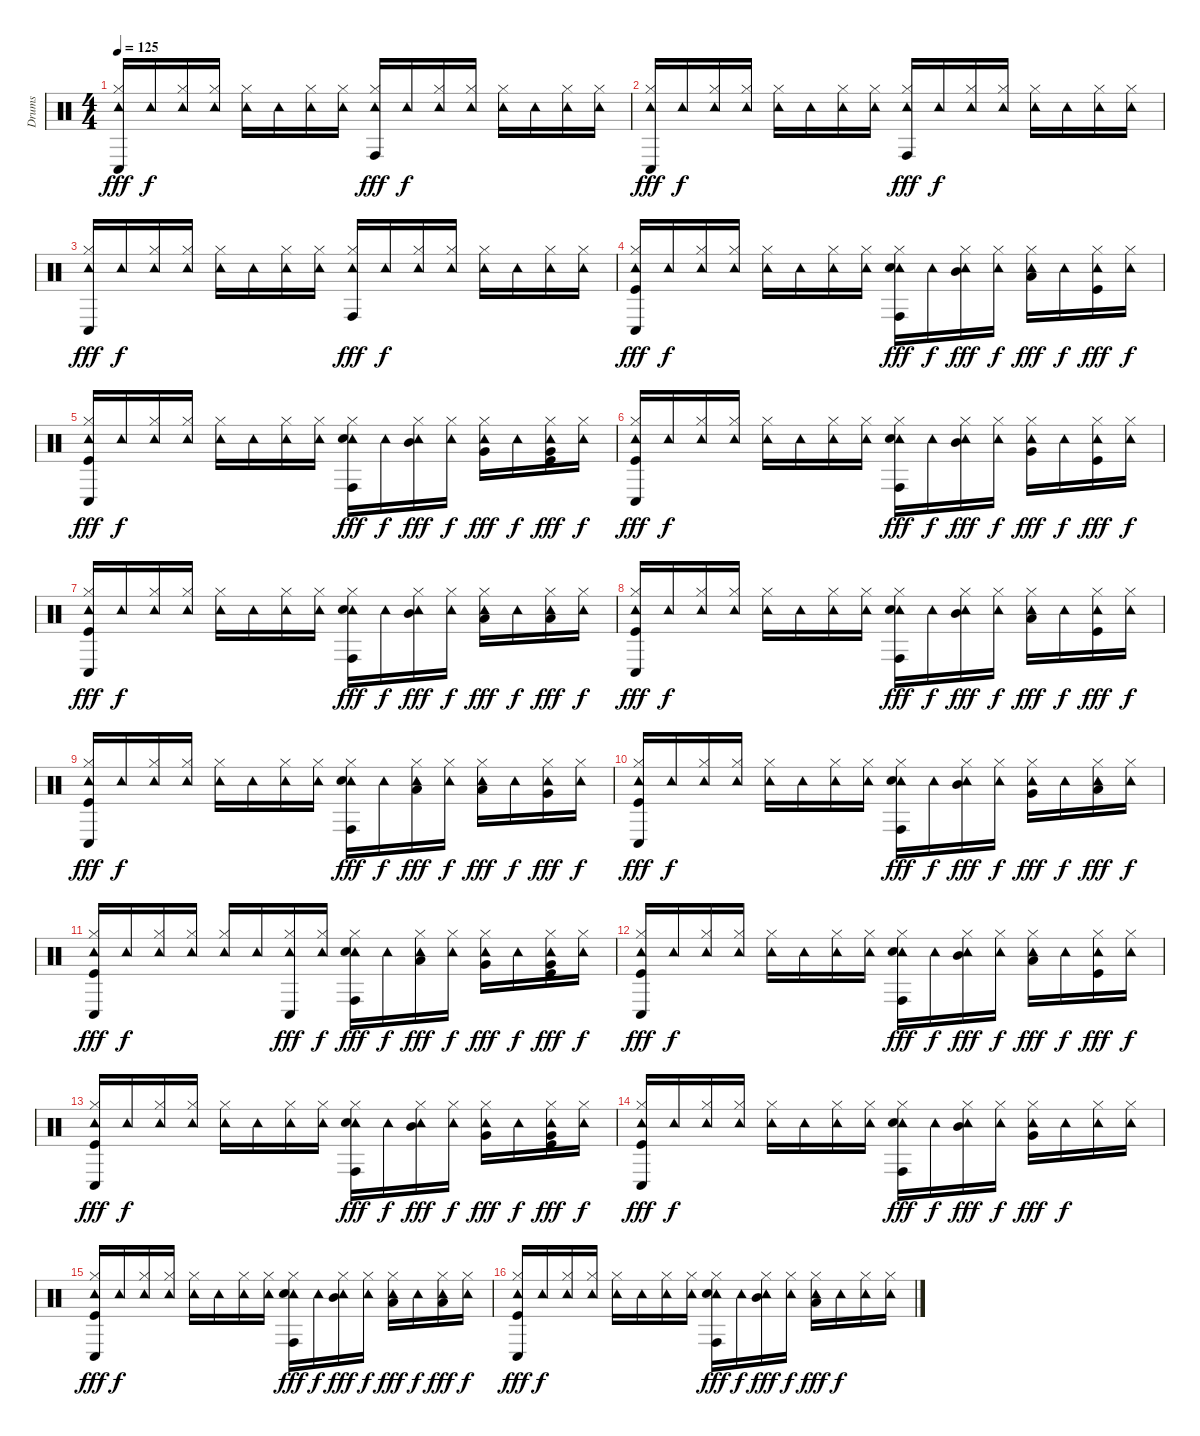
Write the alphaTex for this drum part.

\track ("Drums" "Drums") {instrument percussion}
\staff {score}
\articulation defaults
\ts (4 4)
\tempo 125
\clef neutral
\ks c
("Conga low (hit)" "Tambourine (hit)" "Hi-Hat (closed)").16{dy fff} "Tambourine (hit)".16{dy f} ("Tambourine (hit)" "Hi-Hat (closed)").16 ("Tambourine (hit)" "Hi-Hat (closed)").16 ("Tambourine (hit)" "Hi-Hat (closed)").16 "Tambourine (hit)".16 ("Tambourine (hit)" "Hi-Hat (closed)").16 ("Tambourine (hit)" "Hi-Hat (closed)").16 ("Conga high (hit)" "Tambourine (hit)" "Hi-Hat (closed)").16{dy fff} "Tambourine (hit)".16{dy f} ("Tambourine (hit)" "Hi-Hat (closed)").16 ("Tambourine (hit)" "Hi-Hat (closed)").16 ("Tambourine (hit)" "Hi-Hat (closed)").16 "Tambourine (hit)".16 ("Tambourine (hit)" "Hi-Hat (closed)").16 ("Tambourine (hit)" "Hi-Hat (closed)").16 |
("Conga low (hit)" "Tambourine (hit)" "Hi-Hat (closed)").16{dy fff} "Tambourine (hit)".16{dy f} ("Tambourine (hit)" "Hi-Hat (closed)").16 ("Tambourine (hit)" "Hi-Hat (closed)").16 ("Tambourine (hit)" "Hi-Hat (closed)").16 "Tambourine (hit)".16 ("Tambourine (hit)" "Hi-Hat (closed)").16 ("Tambourine (hit)" "Hi-Hat (closed)").16 ("Conga high (hit)" "Tambourine (hit)" "Hi-Hat (closed)").16{dy fff} "Tambourine (hit)".16{dy f} ("Tambourine (hit)" "Hi-Hat (closed)").16 ("Tambourine (hit)" "Hi-Hat (closed)").16 ("Tambourine (hit)" "Hi-Hat (closed)").16 "Tambourine (hit)".16 ("Tambourine (hit)" "Hi-Hat (closed)").16 ("Tambourine (hit)" "Hi-Hat (closed)").16 |
("Conga low (hit)" "Tambourine (hit)" "Hi-Hat (closed)").16{dy fff} "Tambourine (hit)".16{dy f} ("Tambourine (hit)" "Hi-Hat (closed)").16 ("Tambourine (hit)" "Hi-Hat (closed)").16 ("Tambourine (hit)" "Hi-Hat (closed)").16 "Tambourine (hit)".16 ("Tambourine (hit)" "Hi-Hat (closed)").16 ("Tambourine (hit)" "Hi-Hat (closed)").16 ("Conga high (hit)" "Tambourine (hit)" "Hi-Hat (closed)").16{dy fff} "Tambourine (hit)".16{dy f} ("Tambourine (hit)" "Hi-Hat (closed)").16 ("Tambourine (hit)" "Hi-Hat (closed)").16 ("Tambourine (hit)" "Hi-Hat (closed)").16 "Tambourine (hit)".16 ("Tambourine (hit)" "Hi-Hat (closed)").16 ("Tambourine (hit)" "Hi-Hat (closed)").16 |
("Conga low (hit)" "Tambourine (hit)" "Hi-Hat (closed)" "Kick (hit)").16{dy fff} "Tambourine (hit)".16{dy f} ("Tambourine (hit)" "Hi-Hat (closed)").16 ("Tambourine (hit)" "Hi-Hat (closed)").16 ("Tambourine (hit)" "Hi-Hat (closed)").16 "Tambourine (hit)".16 ("Tambourine (hit)" "Hi-Hat (closed)").16 ("Tambourine (hit)" "Hi-Hat (closed)").16 ("Conga high (hit)" "Tambourine (hit)" "Hi-Hat (closed)" "Snare (hit) 2").16{dy fff} "Tambourine (hit)".16{dy f} ("Tambourine (hit)" "Hi-Hat (closed)" "Mid Tom (hit)").16{dy fff} ("Tambourine (hit)" "Hi-Hat (closed)").16{dy f} ("Tambourine (hit)" "Hi-Hat (closed)" "Low Tom (hit)").16{dy fff} "Tambourine (hit)".16{dy f} ("Tambourine (hit)" "Hi-Hat (closed)" "Kick (hit)").16{dy fff} ("Tambourine (hit)" "Hi-Hat (closed)").16{dy f} |
("Conga low (hit)" "Tambourine (hit)" "Hi-Hat (closed)" "Kick (hit)").16{dy fff} "Tambourine (hit)".16{dy f} ("Tambourine (hit)" "Hi-Hat (closed)").16 ("Tambourine (hit)" "Hi-Hat (closed)").16 ("Tambourine (hit)" "Hi-Hat (closed)").16 "Tambourine (hit)".16 ("Tambourine (hit)" "Hi-Hat (closed)").16 ("Tambourine (hit)" "Hi-Hat (closed)").16 ("Conga high (hit)" "Tambourine (hit)" "Hi-Hat (closed)" "Snare (hit) 2").16{dy fff} "Tambourine (hit)".16{dy f} ("Tambourine (hit)" "Hi-Hat (closed)" "Mid Tom (hit)").16{dy fff} ("Tambourine (hit)" "Hi-Hat (closed)").16{dy f} ("Tambourine (hit)" "Hi-Hat (closed)" "Very Low Tom (hit)").16{dy fff} "Tambourine (hit)".16{dy f} ("Tambourine (hit)" "Hi-Hat (closed)" "Very Low Tom (hit)" "Kick (hit)").16{dy fff} ("Tambourine (hit)" "Hi-Hat (closed)").16{dy f} |
("Conga low (hit)" "Tambourine (hit)" "Hi-Hat (closed)" "Kick (hit)").16{dy fff} "Tambourine (hit)".16{dy f} ("Tambourine (hit)" "Hi-Hat (closed)").16 ("Tambourine (hit)" "Hi-Hat (closed)").16 ("Tambourine (hit)" "Hi-Hat (closed)").16 "Tambourine (hit)".16 ("Tambourine (hit)" "Hi-Hat (closed)").16 ("Tambourine (hit)" "Hi-Hat (closed)").16 ("Conga high (hit)" "Tambourine (hit)" "Hi-Hat (closed)" "Snare (hit) 2").16{dy fff} "Tambourine (hit)".16{dy f} ("Tambourine (hit)" "Hi-Hat (closed)" "Mid Tom (hit)").16{dy fff} ("Tambourine (hit)" "Hi-Hat (closed)").16{dy f} ("Tambourine (hit)" "Hi-Hat (closed)" "Very Low Tom (hit)").16{dy fff} "Tambourine (hit)".16{dy f} ("Tambourine (hit)" "Hi-Hat (closed)" "Kick (hit)").16{dy fff} ("Tambourine (hit)" "Hi-Hat (closed)").16{dy f} |
("Conga low (hit)" "Tambourine (hit)" "Hi-Hat (closed)" "Kick (hit)").16{dy fff} "Tambourine (hit)".16{dy f} ("Tambourine (hit)" "Hi-Hat (closed)").16 ("Tambourine (hit)" "Hi-Hat (closed)").16 ("Tambourine (hit)" "Hi-Hat (closed)").16 "Tambourine (hit)".16 ("Tambourine (hit)" "Hi-Hat (closed)").16 ("Tambourine (hit)" "Hi-Hat (closed)").16 ("Conga high (hit)" "Tambourine (hit)" "Hi-Hat (closed)" "Snare (hit) 2").16{dy fff} "Tambourine (hit)".16{dy f} ("Tambourine (hit)" "Hi-Hat (closed)" "Mid Tom (hit)").16{dy fff} ("Tambourine (hit)" "Hi-Hat (closed)").16{dy f} ("Tambourine (hit)" "Hi-Hat (closed)" "Low Tom (hit)").16{dy fff} "Tambourine (hit)".16{dy f} ("Tambourine (hit)" "Hi-Hat (closed)" "Low Tom (hit)").16{dy fff} ("Tambourine (hit)" "Hi-Hat (closed)").16{dy f} |
("Conga low (hit)" "Tambourine (hit)" "Hi-Hat (closed)" "Kick (hit)").16{dy fff} "Tambourine (hit)".16{dy f} ("Tambourine (hit)" "Hi-Hat (closed)").16 ("Tambourine (hit)" "Hi-Hat (closed)").16 ("Tambourine (hit)" "Hi-Hat (closed)").16 "Tambourine (hit)".16 ("Tambourine (hit)" "Hi-Hat (closed)").16 ("Tambourine (hit)" "Hi-Hat (closed)").16 ("Conga high (hit)" "Tambourine (hit)" "Hi-Hat (closed)" "Snare (hit) 2").16{dy fff} "Tambourine (hit)".16{dy f} ("Tambourine (hit)" "Hi-Hat (closed)" "Mid Tom (hit)").16{dy fff} ("Tambourine (hit)" "Hi-Hat (closed)").16{dy f} ("Tambourine (hit)" "Hi-Hat (closed)" "Low Tom (hit)").16{dy fff} "Tambourine (hit)".16{dy f} ("Tambourine (hit)" "Hi-Hat (closed)" "Kick (hit)").16{dy fff} ("Tambourine (hit)" "Hi-Hat (closed)").16{dy f} |
("Conga low (hit)" "Tambourine (hit)" "Hi-Hat (closed)" "Kick (hit)").16{dy fff} "Tambourine (hit)".16{dy f} ("Tambourine (hit)" "Hi-Hat (closed)").16 ("Tambourine (hit)" "Hi-Hat (closed)").16 ("Tambourine (hit)" "Hi-Hat (closed)").16 "Tambourine (hit)".16 ("Tambourine (hit)" "Hi-Hat (closed)").16 ("Tambourine (hit)" "Hi-Hat (closed)").16 ("Conga high (hit)" "Tambourine (hit)" "Hi-Hat (closed)" "Snare (hit) 2").16{dy fff} "Tambourine (hit)".16{dy f} ("Tambourine (hit)" "Hi-Hat (closed)" "Low Tom (hit)").16{dy fff} ("Tambourine (hit)" "Hi-Hat (closed)").16{dy f} ("Tambourine (hit)" "Hi-Hat (closed)" "Low Tom (hit)").16{dy fff} "Tambourine (hit)".16{dy f} ("Tambourine (hit)" "Hi-Hat (closed)" "Very Low Tom (hit)").16{dy fff} ("Tambourine (hit)" "Hi-Hat (closed)").16{dy f} |
("Conga low (hit)" "Tambourine (hit)" "Hi-Hat (closed)" "Kick (hit)").16{dy fff} "Tambourine (hit)".16{dy f} ("Tambourine (hit)" "Hi-Hat (closed)").16 ("Tambourine (hit)" "Hi-Hat (closed)").16 ("Tambourine (hit)" "Hi-Hat (closed)").16 "Tambourine (hit)".16 ("Tambourine (hit)" "Hi-Hat (closed)").16 ("Tambourine (hit)" "Hi-Hat (closed)").16 ("Conga high (hit)" "Tambourine (hit)" "Hi-Hat (closed)" "Snare (hit) 2").16{dy fff} "Tambourine (hit)".16{dy f} ("Tambourine (hit)" "Hi-Hat (closed)" "Mid Tom (hit)").16{dy fff} ("Tambourine (hit)" "Hi-Hat (closed)").16{dy f} ("Tambourine (hit)" "Hi-Hat (closed)" "Very Low Tom (hit)").16{dy fff} "Tambourine (hit)".16{dy f} ("Tambourine (hit)" "Hi-Hat (closed)" "Low Tom (hit)").16{dy fff} ("Tambourine (hit)" "Hi-Hat (closed)").16{dy f} |
("Conga low (hit)" "Tambourine (hit)" "Hi-Hat (closed)" "Kick (hit)").16{dy fff} "Tambourine (hit)".16{dy f} ("Tambourine (hit)" "Hi-Hat (closed)").16 ("Tambourine (hit)" "Hi-Hat (closed)").16 ("Tambourine (hit)" "Hi-Hat (closed)").16 "Tambourine (hit)".16 ("Conga low (hit)" "Tambourine (hit)" "Hi-Hat (closed)").16{dy fff} ("Tambourine (hit)" "Hi-Hat (closed)").16{dy f} ("Conga high (hit)" "Tambourine (hit)" "Hi-Hat (closed)" "Snare (hit) 2").16{dy fff} "Tambourine (hit)".16{dy f} ("Tambourine (hit)" "Hi-Hat (closed)" "Low Tom (hit)").16{dy fff} ("Tambourine (hit)" "Hi-Hat (closed)").16{dy f} ("Tambourine (hit)" "Hi-Hat (closed)" "Very Low Tom (hit)").16{dy fff} "Tambourine (hit)".16{dy f} ("Tambourine (hit)" "Hi-Hat (closed)" "Very Low Tom (hit)" "Kick (hit)").16{dy fff} ("Tambourine (hit)" "Hi-Hat (closed)").16{dy f} |
("Conga low (hit)" "Tambourine (hit)" "Hi-Hat (closed)" "Kick (hit)").16{dy fff} "Tambourine (hit)".16{dy f} ("Tambourine (hit)" "Hi-Hat (closed)").16 ("Tambourine (hit)" "Hi-Hat (closed)").16 ("Tambourine (hit)" "Hi-Hat (closed)").16 "Tambourine (hit)".16 ("Tambourine (hit)" "Hi-Hat (closed)").16 ("Tambourine (hit)" "Hi-Hat (closed)").16 ("Conga high (hit)" "Tambourine (hit)" "Hi-Hat (closed)" "Snare (hit) 2").16{dy fff} "Tambourine (hit)".16{dy f} ("Tambourine (hit)" "Hi-Hat (closed)" "Mid Tom (hit)").16{dy fff} ("Tambourine (hit)" "Hi-Hat (closed)").16{dy f} ("Tambourine (hit)" "Hi-Hat (closed)" "Low Tom (hit)").16{dy fff} "Tambourine (hit)".16{dy f} ("Tambourine (hit)" "Hi-Hat (closed)" "Kick (hit)").16{dy fff} ("Tambourine (hit)" "Hi-Hat (closed)").16{dy f} |
("Conga low (hit)" "Tambourine (hit)" "Hi-Hat (closed)" "Kick (hit)").16{dy fff} "Tambourine (hit)".16{dy f} ("Tambourine (hit)" "Hi-Hat (closed)").16 ("Tambourine (hit)" "Hi-Hat (closed)").16 ("Tambourine (hit)" "Hi-Hat (closed)").16 "Tambourine (hit)".16 ("Tambourine (hit)" "Hi-Hat (closed)").16 ("Tambourine (hit)" "Hi-Hat (closed)").16 ("Conga high (hit)" "Tambourine (hit)" "Hi-Hat (closed)" "Snare (hit) 2").16{dy fff} "Tambourine (hit)".16{dy f} ("Tambourine (hit)" "Hi-Hat (closed)" "Mid Tom (hit)").16{dy fff} ("Tambourine (hit)" "Hi-Hat (closed)").16{dy f} ("Tambourine (hit)" "Hi-Hat (closed)" "Very Low Tom (hit)").16{dy fff} "Tambourine (hit)".16{dy f} ("Tambourine (hit)" "Hi-Hat (closed)" "Very Low Tom (hit)" "Kick (hit)").16{dy fff} ("Tambourine (hit)" "Hi-Hat (closed)").16{dy f} |
("Conga low (hit)" "Tambourine (hit)" "Hi-Hat (closed)" "Kick (hit)").16{dy fff} "Tambourine (hit)".16{dy f} ("Tambourine (hit)" "Hi-Hat (closed)").16 ("Tambourine (hit)" "Hi-Hat (closed)").16 ("Tambourine (hit)" "Hi-Hat (closed)").16 "Tambourine (hit)".16 ("Tambourine (hit)" "Hi-Hat (closed)").16 ("Tambourine (hit)" "Hi-Hat (closed)").16 ("Conga high (hit)" "Tambourine (hit)" "Hi-Hat (closed)" "Snare (hit) 2").16{dy fff} "Tambourine (hit)".16{dy f} ("Tambourine (hit)" "Hi-Hat (closed)" "Mid Tom (hit)").16{dy fff} ("Tambourine (hit)" "Hi-Hat (closed)").16{dy f} ("Tambourine (hit)" "Hi-Hat (closed)" "Very Low Tom (hit)").16{dy fff} "Tambourine (hit)".16{dy f} ("Tambourine (hit)" "Hi-Hat (closed)").16 ("Tambourine (hit)" "Hi-Hat (closed)").16 |
("Conga low (hit)" "Tambourine (hit)" "Hi-Hat (closed)" "Kick (hit)").16{dy fff} "Tambourine (hit)".16{dy f} ("Tambourine (hit)" "Hi-Hat (closed)").16 ("Tambourine (hit)" "Hi-Hat (closed)").16 ("Tambourine (hit)" "Hi-Hat (closed)").16 "Tambourine (hit)".16 ("Tambourine (hit)" "Hi-Hat (closed)").16 ("Tambourine (hit)" "Hi-Hat (closed)").16 ("Conga high (hit)" "Tambourine (hit)" "Hi-Hat (closed)" "Snare (hit) 2").16{dy fff} "Tambourine (hit)".16{dy f} ("Tambourine (hit)" "Hi-Hat (closed)" "Mid Tom (hit)").16{dy fff} ("Tambourine (hit)" "Hi-Hat (closed)").16{dy f} ("Tambourine (hit)" "Hi-Hat (closed)" "Low Tom (hit)").16{dy fff} "Tambourine (hit)".16{dy f} ("Tambourine (hit)" "Hi-Hat (closed)" "Low Tom (hit)").16{dy fff} ("Tambourine (hit)" "Hi-Hat (closed)").16{dy f} |
("Conga low (hit)" "Tambourine (hit)" "Hi-Hat (closed)" "Kick (hit)").16{dy fff} "Tambourine (hit)".16{dy f} ("Tambourine (hit)" "Hi-Hat (closed)").16 ("Tambourine (hit)" "Hi-Hat (closed)").16 ("Tambourine (hit)" "Hi-Hat (closed)").16 "Tambourine (hit)".16 ("Tambourine (hit)" "Hi-Hat (closed)").16 ("Tambourine (hit)" "Hi-Hat (closed)").16 ("Conga high (hit)" "Tambourine (hit)" "Hi-Hat (closed)" "Snare (hit) 2").16{dy fff} "Tambourine (hit)".16{dy f} ("Tambourine (hit)" "Hi-Hat (closed)" "Mid Tom (hit)").16{dy fff} ("Tambourine (hit)" "Hi-Hat (closed)").16{dy f} ("Tambourine (hit)" "Hi-Hat (closed)" "Low Tom (hit)").16{dy fff} "Tambourine (hit)".16{dy f} ("Tambourine (hit)" "Hi-Hat (closed)").16 ("Tambourine (hit)" "Hi-Hat (closed)").16
